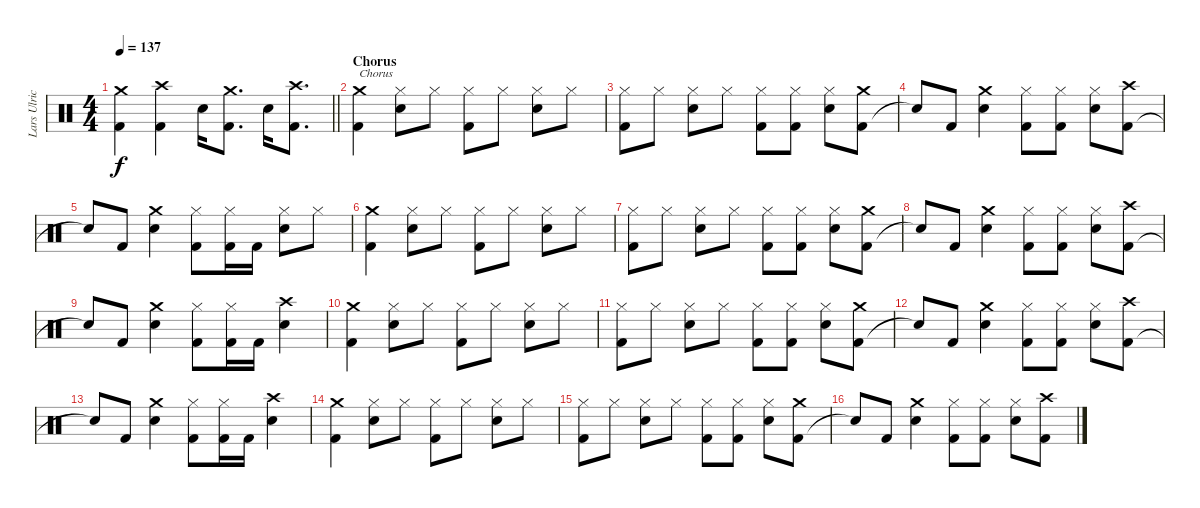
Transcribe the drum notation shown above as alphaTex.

\track ("Lars Ulrich" "Lars Ulric") {instrument percussion}
\staff {score}
\articulation defaults
\ts (4 4)
\tempo 137
\clef neutral
\barLineRight lightlight
\ks c
("Kick (hit) 2" "Crash medium (hit)").4{dy f} ("Kick (hit) 2" "Crash high (hit)").4 "Snare (hit) 2".16 ("Kick (hit) 2" "Crash medium (hit)").8{d} "Snare (hit) 2".16 ("Kick (hit) 2" "Crash high (hit)").8{d} |
\section ("" "Chorus")
("Kick (hit) 2" "Crash medium (hit)").4{txt "Chorus"} ("Snare (hit) 2" "Hi-Hat (closed)").8 "Hi-Hat (closed)".8 ("Kick (hit) 2" "Hi-Hat (closed)").8 "Hi-Hat (closed)".8 ("Snare (hit) 2" "Hi-Hat (closed)").8 "Hi-Hat (closed)".8 |
("Kick (hit) 2" "Hi-Hat (closed)").8 "Hi-Hat (closed)".8 ("Snare (hit) 2" "Hi-Hat (closed)").8 "Hi-Hat (closed)".8 ("Kick (hit) 2" "Hi-Hat (closed)").8 ("Kick (hit) 2" "Hi-Hat (closed)").8 ("Snare (hit) 2" "Hi-Hat (closed)").8 ("Kick (hit) 2" "Crash medium (hit)").8 |
"Snare (hit)"{t}.8 "Kick (hit) 2".8 ("Snare (hit) 2" "Crash medium (hit)").4 ("Kick (hit) 2" "Hi-Hat (closed)").8 ("Kick (hit) 2" "Hi-Hat (closed)").8 ("Snare (hit) 2" "Hi-Hat (closed)").8 ("Kick (hit) 2" "Crash high (hit)").8 |
"Snare (hit)"{t}.8 "Kick (hit) 2".8 ("Snare (hit) 2" "Crash medium (hit)").4 ("Kick (hit) 2" "Hi-Hat (closed)").8 ("Kick (hit) 2" "Hi-Hat (closed)").16 "Kick (hit) 2".16 ("Snare (hit) 2" "Hi-Hat (closed)").8 "Hi-Hat (closed)".8 |
("Kick (hit) 2" "Crash medium (hit)").4 ("Snare (hit) 2" "Hi-Hat (closed)").8 "Hi-Hat (closed)".8 ("Kick (hit) 2" "Hi-Hat (closed)").8 "Hi-Hat (closed)".8 ("Snare (hit) 2" "Hi-Hat (closed)").8 "Hi-Hat (closed)".8 |
("Kick (hit) 2" "Hi-Hat (closed)").8 "Hi-Hat (closed)".8 ("Snare (hit) 2" "Hi-Hat (closed)").8 "Hi-Hat (closed)".8 ("Kick (hit) 2" "Hi-Hat (closed)").8 ("Kick (hit) 2" "Hi-Hat (closed)").8 ("Snare (hit) 2" "Hi-Hat (closed)").8 ("Kick (hit) 2" "Crash medium (hit)").8 |
"Snare (hit)"{t}.8 "Kick (hit) 2".8 ("Snare (hit) 2" "Crash medium (hit)").4 ("Kick (hit) 2" "Hi-Hat (closed)").8 ("Kick (hit) 2" "Hi-Hat (closed)").8 ("Snare (hit) 2" "Hi-Hat (closed)").8 ("Kick (hit) 2" "Crash high (hit)").8 |
"Snare (hit)"{t}.8 "Kick (hit) 2".8 ("Snare (hit) 2" "Crash medium (hit)").4 ("Kick (hit) 2" "Hi-Hat (closed)").8 ("Kick (hit) 2" "Hi-Hat (closed)").16 "Kick (hit) 2".16 ("Snare (hit) 2" "Crash high (hit)").4 |
("Kick (hit) 2" "Crash medium (hit)").4 ("Snare (hit) 2" "Hi-Hat (closed)").8 "Hi-Hat (closed)".8 ("Kick (hit) 2" "Hi-Hat (closed)").8 "Hi-Hat (closed)".8 ("Snare (hit) 2" "Hi-Hat (closed)").8 "Hi-Hat (closed)".8 |
("Kick (hit) 2" "Hi-Hat (closed)").8 "Hi-Hat (closed)".8 ("Snare (hit) 2" "Hi-Hat (closed)").8 "Hi-Hat (closed)".8 ("Kick (hit) 2" "Hi-Hat (closed)").8 ("Kick (hit) 2" "Hi-Hat (closed)").8 ("Snare (hit) 2" "Hi-Hat (closed)").8 ("Kick (hit) 2" "Crash medium (hit)").8 |
"Snare (hit)"{t}.8 "Kick (hit) 2".8 ("Snare (hit) 2" "Crash medium (hit)").4 ("Kick (hit) 2" "Hi-Hat (closed)").8 ("Kick (hit) 2" "Hi-Hat (closed)").8 ("Snare (hit) 2" "Hi-Hat (closed)").8 ("Kick (hit) 2" "Crash high (hit)").8 |
"Snare (hit)"{t}.8 "Kick (hit) 2".8 ("Snare (hit) 2" "Crash medium (hit)").4 ("Kick (hit) 2" "Hi-Hat (closed)").8 ("Kick (hit) 2" "Hi-Hat (closed)").16 "Kick (hit) 2".16 ("Snare (hit) 2" "Crash high (hit)").4 |
("Kick (hit) 2" "Crash medium (hit)").4 ("Snare (hit) 2" "Hi-Hat (closed)").8 "Hi-Hat (closed)".8 ("Kick (hit) 2" "Hi-Hat (closed)").8 "Hi-Hat (closed)".8 ("Snare (hit) 2" "Hi-Hat (closed)").8 "Hi-Hat (closed)".8 |
("Kick (hit) 2" "Hi-Hat (closed)").8 "Hi-Hat (closed)".8 ("Snare (hit) 2" "Hi-Hat (closed)").8 "Hi-Hat (closed)".8 ("Kick (hit) 2" "Hi-Hat (closed)").8 ("Kick (hit) 2" "Hi-Hat (closed)").8 ("Snare (hit) 2" "Hi-Hat (closed)").8 ("Kick (hit) 2" "Crash medium (hit)").8 |
"Snare (hit)"{t}.8 "Kick (hit) 2".8 ("Snare (hit) 2" "Crash medium (hit)").4 ("Kick (hit) 2" "Hi-Hat (closed)").8 ("Kick (hit) 2" "Hi-Hat (closed)").8 ("Snare (hit) 2" "Hi-Hat (closed)").8 ("Kick (hit) 2" "Crash high (hit)").8
